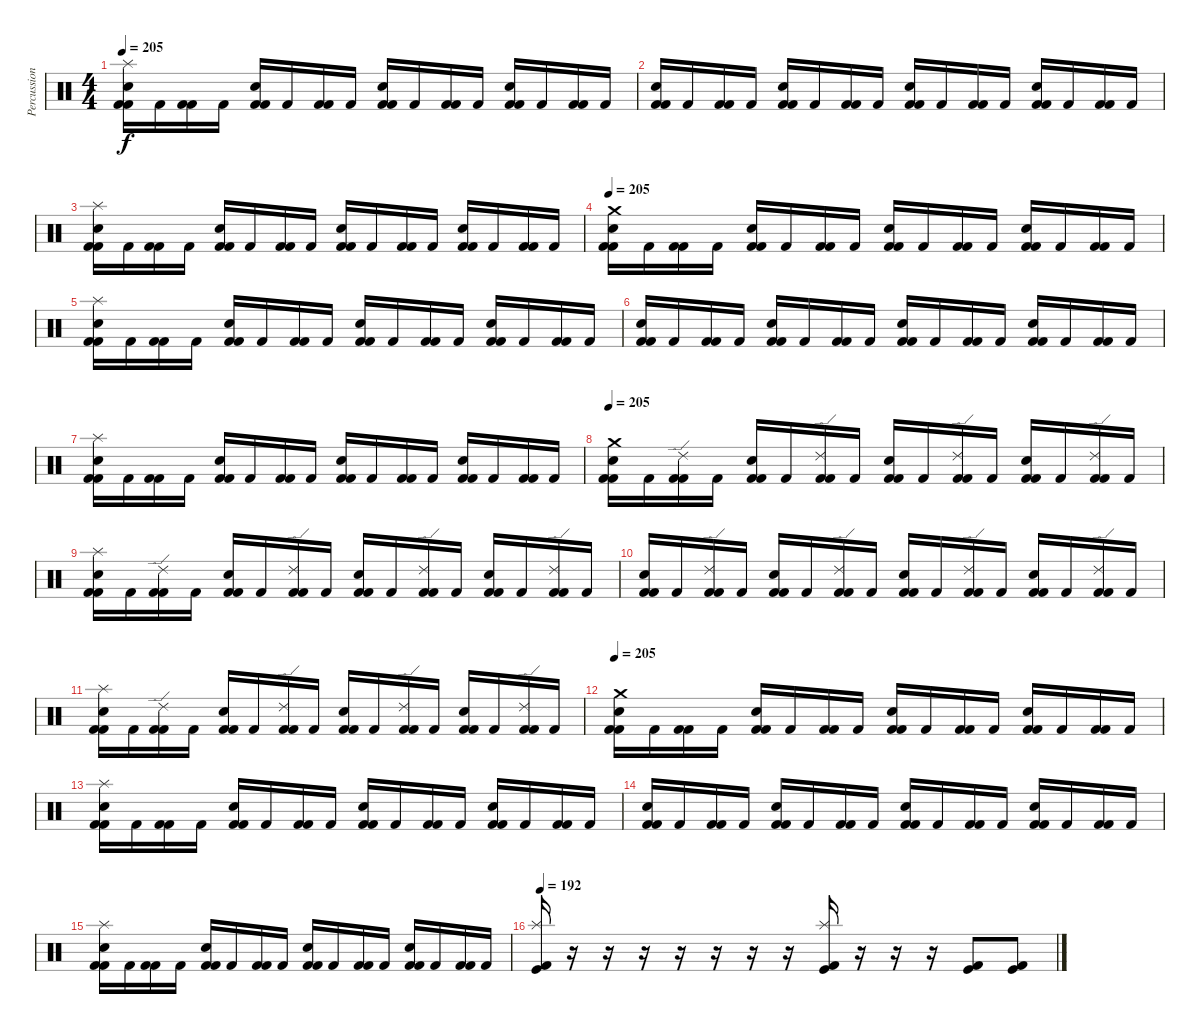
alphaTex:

\track ("Percussion" "Percussion") {instrument percussion}
\staff {score}
\articulation defaults
\ts (4 4)
\tempo 205
\clef neutral
\ks c
("Kick (hit) 2" "Electric Snare (hit)" "Splash (hit)" "Kick (hit) 2").16{dy f} "Kick (hit) 2".16 ("Kick (hit) 2" "Kick (hit) 2").16 "Kick (hit) 2".16 ("Kick (hit) 2" "Electric Snare (hit)" "Kick (hit) 2").16 "Kick (hit) 2".16 ("Kick (hit) 2" "Kick (hit) 2").16 "Kick (hit) 2".16 ("Kick (hit) 2" "Electric Snare (hit)" "Kick (hit) 2").16 "Kick (hit) 2".16 ("Kick (hit) 2" "Kick (hit) 2").16 "Kick (hit) 2".16 ("Kick (hit) 2" "Electric Snare (hit)" "Kick (hit) 2").16 "Kick (hit) 2".16 ("Kick (hit) 2" "Kick (hit) 2").16 "Kick (hit) 2".16 |
("Kick (hit) 2" "Electric Snare (hit)" "Kick (hit) 2").16 "Kick (hit) 2".16 ("Kick (hit) 2" "Kick (hit) 2").16 "Kick (hit) 2".16 ("Kick (hit) 2" "Electric Snare (hit)" "Kick (hit) 2").16 "Kick (hit) 2".16 ("Kick (hit) 2" "Kick (hit) 2").16 "Kick (hit) 2".16 ("Kick (hit) 2" "Electric Snare (hit)" "Kick (hit) 2").16 "Kick (hit) 2".16 ("Kick (hit) 2" "Kick (hit) 2").16 "Kick (hit) 2".16 ("Kick (hit) 2" "Electric Snare (hit)" "Kick (hit) 2").16 "Kick (hit) 2".16 ("Kick (hit) 2" "Kick (hit) 2").16 "Kick (hit) 2".16 |
("Kick (hit) 2" "Electric Snare (hit)" "Splash (hit)" "Kick (hit) 2").16 "Kick (hit) 2".16 ("Kick (hit) 2" "Kick (hit) 2").16 "Kick (hit) 2".16 ("Kick (hit) 2" "Electric Snare (hit)" "Kick (hit) 2").16 "Kick (hit) 2".16 ("Kick (hit) 2" "Kick (hit) 2").16 "Kick (hit) 2".16 ("Kick (hit) 2" "Electric Snare (hit)" "Kick (hit) 2").16 "Kick (hit) 2".16 ("Kick (hit) 2" "Kick (hit) 2").16 "Kick (hit) 2".16 ("Kick (hit) 2" "Electric Snare (hit)" "Kick (hit) 2").16 "Kick (hit) 2".16 ("Kick (hit) 2" "Kick (hit) 2").16 "Kick (hit) 2".16 |
\tempo 205
("Kick (hit) 2" "Electric Snare (hit)" "Crash medium (hit)" "Kick (hit) 2").16 "Kick (hit) 2".16 ("Kick (hit) 2" "Kick (hit) 2").16 "Kick (hit) 2".16 ("Kick (hit) 2" "Electric Snare (hit)" "Kick (hit) 2").16 "Kick (hit) 2".16 ("Kick (hit) 2" "Kick (hit) 2").16 "Kick (hit) 2".16 ("Kick (hit) 2" "Electric Snare (hit)" "Kick (hit) 2").16 "Kick (hit) 2".16 ("Kick (hit) 2" "Kick (hit) 2").16 "Kick (hit) 2".16 ("Kick (hit) 2" "Electric Snare (hit)" "Kick (hit) 2").16 "Kick (hit) 2".16 ("Kick (hit) 2" "Kick (hit) 2").16 "Kick (hit) 2".16 |
("Kick (hit) 2" "Electric Snare (hit)" "Splash (hit)" "Kick (hit) 2").16 "Kick (hit) 2".16 ("Kick (hit) 2" "Kick (hit) 2").16 "Kick (hit) 2".16 ("Kick (hit) 2" "Electric Snare (hit)" "Kick (hit) 2").16 "Kick (hit) 2".16 ("Kick (hit) 2" "Kick (hit) 2").16 "Kick (hit) 2".16 ("Kick (hit) 2" "Electric Snare (hit)" "Kick (hit) 2").16 "Kick (hit) 2".16 ("Kick (hit) 2" "Kick (hit) 2").16 "Kick (hit) 2".16 ("Kick (hit) 2" "Electric Snare (hit)" "Kick (hit) 2").16 "Kick (hit) 2".16 ("Kick (hit) 2" "Kick (hit) 2").16 "Kick (hit) 2".16 |
("Kick (hit) 2" "Electric Snare (hit)" "Kick (hit) 2").16 "Kick (hit) 2".16 ("Kick (hit) 2" "Kick (hit) 2").16 "Kick (hit) 2".16 ("Kick (hit) 2" "Electric Snare (hit)" "Kick (hit) 2").16 "Kick (hit) 2".16 ("Kick (hit) 2" "Kick (hit) 2").16 "Kick (hit) 2".16 ("Kick (hit) 2" "Electric Snare (hit)" "Kick (hit) 2").16 "Kick (hit) 2".16 ("Kick (hit) 2" "Kick (hit) 2").16 "Kick (hit) 2".16 ("Kick (hit) 2" "Electric Snare (hit)" "Kick (hit) 2").16 "Kick (hit) 2".16 ("Kick (hit) 2" "Kick (hit) 2").16 "Kick (hit) 2".16 |
("Kick (hit) 2" "Electric Snare (hit)" "Splash (hit)" "Kick (hit) 2").16 "Kick (hit) 2".16 ("Kick (hit) 2" "Kick (hit) 2").16 "Kick (hit) 2".16 ("Kick (hit) 2" "Electric Snare (hit)" "Kick (hit) 2").16 "Kick (hit) 2".16 ("Kick (hit) 2" "Kick (hit) 2").16 "Kick (hit) 2".16 ("Kick (hit) 2" "Electric Snare (hit)" "Kick (hit) 2").16 "Kick (hit) 2".16 ("Kick (hit) 2" "Kick (hit) 2").16 "Kick (hit) 2".16 ("Kick (hit) 2" "Electric Snare (hit)" "Kick (hit) 2").16 "Kick (hit) 2".16 ("Kick (hit) 2" "Kick (hit) 2").16 "Kick (hit) 2".16 |
\tempo 205
("Kick (hit) 2" "Electric Snare (hit)" "Crash medium (hit)" "Kick (hit) 2").16 "Kick (hit) 2".16 ("Kick (hit) 2" "Ride (edge) 2" "Kick (hit) 2").16 "Kick (hit) 2".16 ("Kick (hit) 2" "Electric Snare (hit)" "Kick (hit) 2").16 "Kick (hit) 2".16 ("Kick (hit) 2" "Ride (edge) 2" "Kick (hit) 2").16 "Kick (hit) 2".16 ("Kick (hit) 2" "Electric Snare (hit)" "Kick (hit) 2").16 "Kick (hit) 2".16 ("Kick (hit) 2" "Ride (edge) 2" "Kick (hit) 2").16 "Kick (hit) 2".16 ("Kick (hit) 2" "Electric Snare (hit)" "Kick (hit) 2").16 "Kick (hit) 2".16 ("Kick (hit) 2" "Ride (edge) 2" "Kick (hit) 2").16 "Kick (hit) 2".16 |
("Kick (hit) 2" "Electric Snare (hit)" "Splash (hit)" "Kick (hit) 2").16 "Kick (hit) 2".16 ("Kick (hit) 2" "Ride (edge) 2" "Kick (hit) 2").16 "Kick (hit) 2".16 ("Kick (hit) 2" "Electric Snare (hit)" "Kick (hit) 2").16 "Kick (hit) 2".16 ("Kick (hit) 2" "Ride (edge) 2" "Kick (hit) 2").16 "Kick (hit) 2".16 ("Kick (hit) 2" "Electric Snare (hit)" "Kick (hit) 2").16 "Kick (hit) 2".16 ("Kick (hit) 2" "Ride (edge) 2" "Kick (hit) 2").16 "Kick (hit) 2".16 ("Kick (hit) 2" "Electric Snare (hit)" "Kick (hit) 2").16 "Kick (hit) 2".16 ("Kick (hit) 2" "Ride (edge) 2" "Kick (hit) 2").16 "Kick (hit) 2".16 |
("Kick (hit) 2" "Electric Snare (hit)" "Kick (hit) 2").16 "Kick (hit) 2".16 ("Kick (hit) 2" "Ride (edge) 2" "Kick (hit) 2").16 "Kick (hit) 2".16 ("Kick (hit) 2" "Electric Snare (hit)" "Kick (hit) 2").16 "Kick (hit) 2".16 ("Kick (hit) 2" "Ride (edge) 2" "Kick (hit) 2").16 "Kick (hit) 2".16 ("Kick (hit) 2" "Electric Snare (hit)" "Kick (hit) 2").16 "Kick (hit) 2".16 ("Kick (hit) 2" "Ride (edge) 2" "Kick (hit) 2").16 "Kick (hit) 2".16 ("Kick (hit) 2" "Electric Snare (hit)" "Kick (hit) 2").16 "Kick (hit) 2".16 ("Kick (hit) 2" "Ride (edge) 2" "Kick (hit) 2").16 "Kick (hit) 2".16 |
("Kick (hit) 2" "Electric Snare (hit)" "Splash (hit)" "Kick (hit) 2").16 "Kick (hit) 2".16 ("Kick (hit) 2" "Ride (edge) 2" "Kick (hit) 2").16 "Kick (hit) 2".16 ("Kick (hit) 2" "Electric Snare (hit)" "Kick (hit) 2").16 "Kick (hit) 2".16 ("Kick (hit) 2" "Ride (edge) 2" "Kick (hit) 2").16 "Kick (hit) 2".16 ("Kick (hit) 2" "Electric Snare (hit)" "Kick (hit) 2").16 "Kick (hit) 2".16 ("Kick (hit) 2" "Ride (edge) 2" "Kick (hit) 2").16 "Kick (hit) 2".16 ("Kick (hit) 2" "Electric Snare (hit)" "Kick (hit) 2").16 "Kick (hit) 2".16 ("Kick (hit) 2" "Ride (edge) 2" "Kick (hit) 2").16 "Kick (hit) 2".16 |
\tempo 205
("Kick (hit) 2" "Electric Snare (hit)" "Crash medium (hit)" "Kick (hit) 2").16 "Kick (hit) 2".16 ("Kick (hit) 2" "Kick (hit) 2").16 "Kick (hit) 2".16 ("Kick (hit) 2" "Electric Snare (hit)" "Kick (hit) 2").16 "Kick (hit) 2".16 ("Kick (hit) 2" "Kick (hit) 2").16 "Kick (hit) 2".16 ("Kick (hit) 2" "Electric Snare (hit)" "Kick (hit) 2").16 "Kick (hit) 2".16 ("Kick (hit) 2" "Kick (hit) 2").16 "Kick (hit) 2".16 ("Kick (hit) 2" "Electric Snare (hit)" "Kick (hit) 2").16 "Kick (hit) 2".16 ("Kick (hit) 2" "Kick (hit) 2").16 "Kick (hit) 2".16 |
("Kick (hit) 2" "Electric Snare (hit)" "Splash (hit)" "Kick (hit) 2").16 "Kick (hit) 2".16 ("Kick (hit) 2" "Kick (hit) 2").16 "Kick (hit) 2".16 ("Kick (hit) 2" "Electric Snare (hit)" "Kick (hit) 2").16 "Kick (hit) 2".16 ("Kick (hit) 2" "Kick (hit) 2").16 "Kick (hit) 2".16 ("Kick (hit) 2" "Electric Snare (hit)" "Kick (hit) 2").16 "Kick (hit) 2".16 ("Kick (hit) 2" "Kick (hit) 2").16 "Kick (hit) 2".16 ("Kick (hit) 2" "Electric Snare (hit)" "Kick (hit) 2").16 "Kick (hit) 2".16 ("Kick (hit) 2" "Kick (hit) 2").16 "Kick (hit) 2".16 |
("Kick (hit) 2" "Electric Snare (hit)" "Kick (hit) 2").16 "Kick (hit) 2".16 ("Kick (hit) 2" "Kick (hit) 2").16 "Kick (hit) 2".16 ("Kick (hit) 2" "Electric Snare (hit)" "Kick (hit) 2").16 "Kick (hit) 2".16 ("Kick (hit) 2" "Kick (hit) 2").16 "Kick (hit) 2".16 ("Kick (hit) 2" "Electric Snare (hit)" "Kick (hit) 2").16 "Kick (hit) 2".16 ("Kick (hit) 2" "Kick (hit) 2").16 "Kick (hit) 2".16 ("Kick (hit) 2" "Electric Snare (hit)" "Kick (hit) 2").16 "Kick (hit) 2".16 ("Kick (hit) 2" "Kick (hit) 2").16 "Kick (hit) 2".16 |
("Kick (hit) 2" "Electric Snare (hit)" "Splash (hit)" "Kick (hit) 2").16 "Kick (hit) 2".16 ("Kick (hit) 2" "Kick (hit) 2").16 "Kick (hit) 2".16 ("Kick (hit) 2" "Electric Snare (hit)" "Kick (hit) 2").16 "Kick (hit) 2".16 ("Kick (hit) 2" "Kick (hit) 2").16 "Kick (hit) 2".16 ("Kick (hit) 2" "Electric Snare (hit)" "Kick (hit) 2").16 "Kick (hit) 2".16 ("Kick (hit) 2" "Kick (hit) 2").16 "Kick (hit) 2".16 ("Kick (hit) 2" "Electric Snare (hit)" "Kick (hit) 2").16 "Kick (hit) 2".16 ("Kick (hit) 2" "Kick (hit) 2").16 "Kick (hit) 2".16 |
\tempo 192
("Kick (hit) 2" "Kick (hit)" "Splash (hit)").16 r.16 r.16 r.16 r.16 r.16 r.16 r.16 ("Kick (hit) 2" "Kick (hit)" "Splash (hit)").16 r.16 r.16 r.16 ("Kick (hit) 2" "Kick (hit)").8 ("Kick (hit) 2" "Kick (hit)").8
